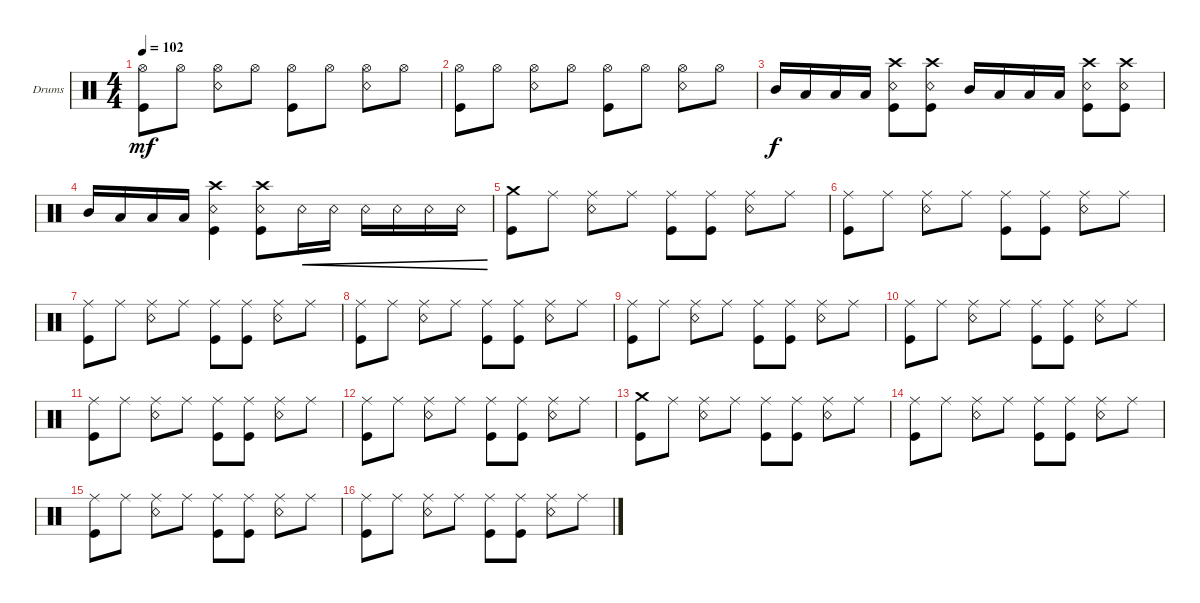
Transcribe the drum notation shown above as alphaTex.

\defaultSystemsLayout 4
\bracketExtendMode groupsimilarinstruments
\firstSystemTrackNameOrientation horizontal
\otherSystemsTrackNameOrientation horizontal
\track ("Drums" "Drums") {instrument percussion}
\staff {score}
\articulation defaults
\ts (4 4)
\tempo 102
\clef neutral
\ks c
("Kick (hit)" "Hi-Hat (open)").8{dy mf} "Hi-Hat (open)".8 ("Hi-Hat (open)" "Snare (rim shot)").8 "Hi-Hat (open)".8 ("Hi-Hat (open)" "Kick (hit)").8 "Hi-Hat (open)".8 ("Hi-Hat (open)" "Snare (rim shot)").8 "Hi-Hat (open)".8 |
("Kick (hit)" "Hi-Hat (open)").8 "Hi-Hat (open)".8 ("Hi-Hat (open)" "Snare (rim shot)").8 "Hi-Hat (open)".8 ("Hi-Hat (open)" "Kick (hit)").8 "Hi-Hat (open)".8 ("Hi-Hat (open)" "Snare (rim shot)").8 "Hi-Hat (open)".8 |
"Mid Tom (hit)".16{dy f} "Low Tom (hit)".16 "Low Tom (hit)".16 "Low Tom (hit)".16 ("Snare (rim shot)" "Crash high (hit)" "Kick (hit)").8 ("Snare (rim shot)" "Crash high (hit)" "Kick (hit)").8 "Mid Tom (hit)".16 "Low Tom (hit)".16 "Low Tom (hit)".16 "Low Tom (hit)".16 ("Snare (rim shot)" "Crash high (hit)" "Kick (hit)").8 ("Snare (rim shot)" "Crash high (hit)" "Kick (hit)").8 |
"Mid Tom (hit)".16 "Low Tom (hit)".16 "Low Tom (hit)".16 "Low Tom (hit)".16 ("Snare (rim shot)" "Crash high (hit)" "Kick (hit)").4 ("Snare (rim shot)" "Crash high (hit)" "Kick (hit)").8 "Snare (rim shot)".16{cre} "Snare (rim shot)".16{cre} "Snare (rim shot)".16{cre} "Snare (rim shot)".16{cre} "Snare (rim shot)".16{cre} "Snare (rim shot)".16{cre} |
("Kick (hit)" "Crash medium (hit)").8 "Ride (middle)".8 ("Snare (rim shot)" "Ride (middle)").8 "Ride (middle)".8 ("Kick (hit)" "Ride (middle)").8 ("Kick (hit)" "Ride (middle)").8 ("Snare (rim shot)" "Ride (middle)").8 "Ride (middle)".8 |
("Ride (middle)" "Kick (hit)").8 "Ride (middle)".8 ("Ride (middle)" "Snare (rim shot)").8 "Ride (middle)".8 ("Ride (middle)" "Kick (hit)").8 ("Ride (middle)" "Kick (hit)").8 ("Ride (middle)" "Snare (rim shot)").8 "Ride (middle)".8 |
("Ride (middle)" "Kick (hit)").8 "Ride (middle)".8 ("Ride (middle)" "Snare (rim shot)").8 "Ride (middle)".8 ("Ride (middle)" "Kick (hit)").8 ("Ride (middle)" "Kick (hit)").8 ("Ride (middle)" "Snare (rim shot)").8 "Ride (middle)".8 |
("Ride (middle)" "Kick (hit)").8 "Ride (middle)".8 ("Ride (middle)" "Snare (rim shot)").8 "Ride (middle)".8 ("Ride (middle)" "Kick (hit)").8 ("Ride (middle)" "Kick (hit)").8 ("Ride (middle)" "Snare (rim shot)").8 "Ride (middle)".8 |
("Ride (middle)" "Kick (hit)").8 "Ride (middle)".8 ("Ride (middle)" "Snare (rim shot)").8 "Ride (middle)".8 ("Ride (middle)" "Kick (hit)").8 ("Ride (middle)" "Kick (hit)").8 ("Ride (middle)" "Snare (rim shot)").8 "Ride (middle)".8 |
("Ride (middle)" "Kick (hit)").8 "Ride (middle)".8 ("Ride (middle)" "Snare (rim shot)").8 "Ride (middle)".8 ("Ride (middle)" "Kick (hit)").8 ("Ride (middle)" "Kick (hit)").8 ("Ride (middle)" "Snare (rim shot)").8 "Ride (middle)".8 |
("Ride (middle)" "Kick (hit)").8 "Ride (middle)".8 ("Ride (middle)" "Snare (rim shot)").8 "Ride (middle)".8 ("Ride (middle)" "Kick (hit)").8 ("Ride (middle)" "Kick (hit)").8 ("Ride (middle)" "Snare (rim shot)").8 "Ride (middle)".8 |
("Ride (middle)" "Kick (hit)").8 "Ride (middle)".8 ("Ride (middle)" "Snare (rim shot)").8 "Ride (middle)".8 ("Ride (middle)" "Kick (hit)").8 ("Ride (middle)" "Kick (hit)").8 ("Ride (middle)" "Snare (rim shot)").8 "Ride (middle)".8 |
("Kick (hit)" "Crash medium (hit)").8 "Ride (middle)".8 ("Snare (rim shot)" "Ride (middle)").8 "Ride (middle)".8 ("Kick (hit)" "Ride (middle)").8 ("Kick (hit)" "Ride (middle)").8 ("Snare (rim shot)" "Ride (middle)").8 "Ride (middle)".8 |
("Ride (middle)" "Kick (hit)").8 "Ride (middle)".8 ("Ride (middle)" "Snare (rim shot)").8 "Ride (middle)".8 ("Ride (middle)" "Kick (hit)").8 ("Ride (middle)" "Kick (hit)").8 ("Ride (middle)" "Snare (rim shot)").8 "Ride (middle)".8 |
("Ride (middle)" "Kick (hit)").8 "Ride (middle)".8 ("Ride (middle)" "Snare (rim shot)").8 "Ride (middle)".8 ("Ride (middle)" "Kick (hit)").8 ("Ride (middle)" "Kick (hit)").8 ("Ride (middle)" "Snare (rim shot)").8 "Ride (middle)".8 |
("Ride (middle)" "Kick (hit)").8 "Ride (middle)".8 ("Ride (middle)" "Snare (rim shot)").8 "Ride (middle)".8 ("Ride (middle)" "Kick (hit)").8 ("Ride (middle)" "Kick (hit)").8 ("Ride (middle)" "Snare (rim shot)").8 "Ride (middle)".8
